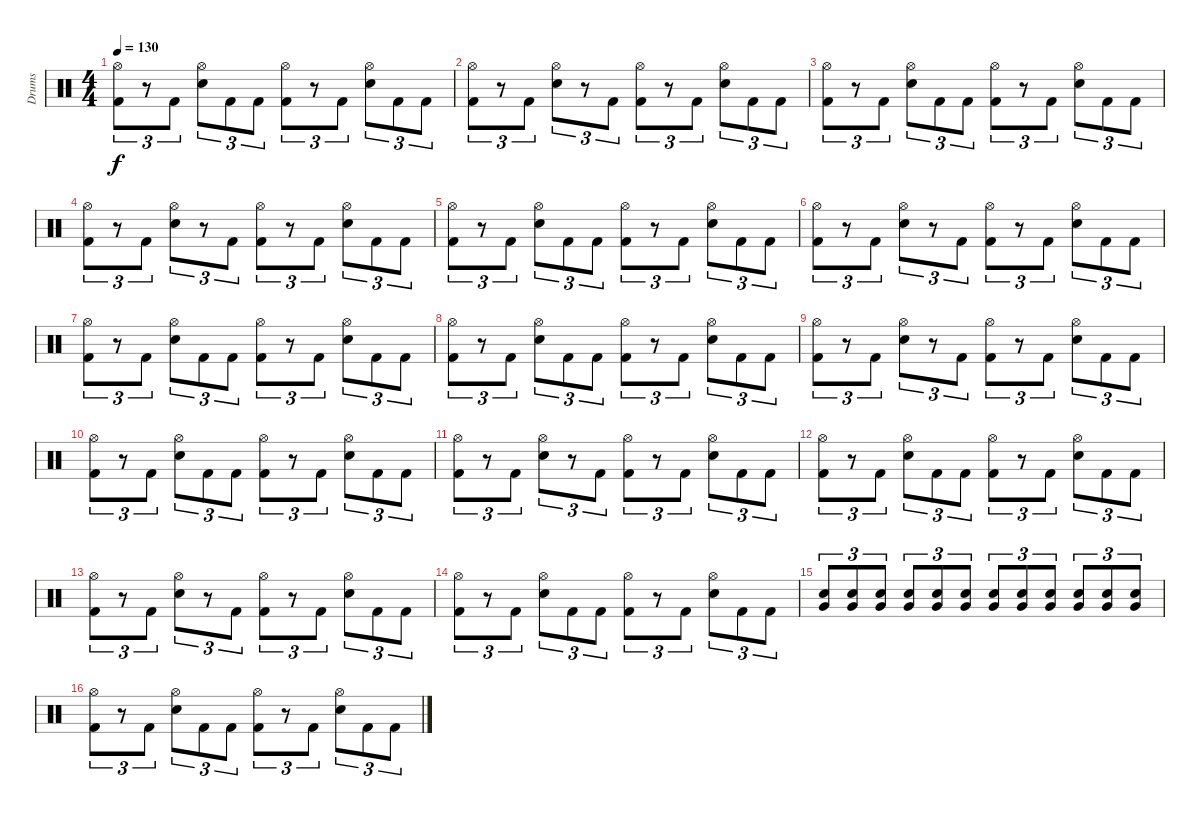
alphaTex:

\track ("Drums" "Drums") {instrument percussion}
\staff {score}
\articulation defaults
\ts (4 4)
\tempo 130
\clef neutral
\ks c
("Hi-Hat (open)" "Kick (hit) 2").8{tu (3 2) dy f} r.8{tu (3 2)} "Kick (hit) 2".8{tu (3 2)} ("Hi-Hat (open)" "Snare (hit) 2").8{tu (3 2)} "Kick (hit) 2".8{tu (3 2)} "Kick (hit) 2".8{tu (3 2)} ("Hi-Hat (open)" "Kick (hit) 2").8{tu (3 2)} r.8{tu (3 2)} "Kick (hit) 2".8{tu (3 2)} ("Hi-Hat (open)" "Snare (hit) 2").8{tu (3 2)} "Kick (hit) 2".8{tu (3 2)} "Kick (hit) 2".8{tu (3 2)} |
("Hi-Hat (open)" "Kick (hit) 2").8{tu (3 2)} r.8{tu (3 2)} "Kick (hit) 2".8{tu (3 2)} ("Hi-Hat (open)" "Snare (hit) 2").8{tu (3 2)} r.8{tu (3 2)} "Kick (hit) 2".8{tu (3 2)} ("Hi-Hat (open)" "Kick (hit) 2").8{tu (3 2)} r.8{tu (3 2)} "Kick (hit) 2".8{tu (3 2)} ("Hi-Hat (open)" "Snare (hit) 2").8{tu (3 2)} "Kick (hit) 2".8{tu (3 2)} "Kick (hit) 2".8{tu (3 2)} |
("Hi-Hat (open)" "Kick (hit) 2").8{tu (3 2)} r.8{tu (3 2)} "Kick (hit) 2".8{tu (3 2)} ("Hi-Hat (open)" "Snare (hit) 2").8{tu (3 2)} "Kick (hit) 2".8{tu (3 2)} "Kick (hit) 2".8{tu (3 2)} ("Hi-Hat (open)" "Kick (hit) 2").8{tu (3 2)} r.8{tu (3 2)} "Kick (hit) 2".8{tu (3 2)} ("Hi-Hat (open)" "Snare (hit) 2").8{tu (3 2)} "Kick (hit) 2".8{tu (3 2)} "Kick (hit) 2".8{tu (3 2)} |
("Hi-Hat (open)" "Kick (hit) 2").8{tu (3 2)} r.8{tu (3 2)} "Kick (hit) 2".8{tu (3 2)} ("Hi-Hat (open)" "Snare (hit) 2").8{tu (3 2)} r.8{tu (3 2)} "Kick (hit) 2".8{tu (3 2)} ("Hi-Hat (open)" "Kick (hit) 2").8{tu (3 2)} r.8{tu (3 2)} "Kick (hit) 2".8{tu (3 2)} ("Hi-Hat (open)" "Snare (hit) 2").8{tu (3 2)} "Kick (hit) 2".8{tu (3 2)} "Kick (hit) 2".8{tu (3 2)} |
("Hi-Hat (open)" "Kick (hit) 2").8{tu (3 2)} r.8{tu (3 2)} "Kick (hit) 2".8{tu (3 2)} ("Hi-Hat (open)" "Snare (hit) 2").8{tu (3 2)} "Kick (hit) 2".8{tu (3 2)} "Kick (hit) 2".8{tu (3 2)} ("Hi-Hat (open)" "Kick (hit) 2").8{tu (3 2)} r.8{tu (3 2)} "Kick (hit) 2".8{tu (3 2)} ("Hi-Hat (open)" "Snare (hit) 2").8{tu (3 2)} "Kick (hit) 2".8{tu (3 2)} "Kick (hit) 2".8{tu (3 2)} |
("Hi-Hat (open)" "Kick (hit) 2").8{tu (3 2)} r.8{tu (3 2)} "Kick (hit) 2".8{tu (3 2)} ("Hi-Hat (open)" "Snare (hit) 2").8{tu (3 2)} r.8{tu (3 2)} "Kick (hit) 2".8{tu (3 2)} ("Hi-Hat (open)" "Kick (hit) 2").8{tu (3 2)} r.8{tu (3 2)} "Kick (hit) 2".8{tu (3 2)} ("Hi-Hat (open)" "Snare (hit) 2").8{tu (3 2)} "Kick (hit) 2".8{tu (3 2)} "Kick (hit) 2".8{tu (3 2)} |
("Hi-Hat (open)" "Kick (hit) 2").8{tu (3 2)} r.8{tu (3 2)} "Kick (hit) 2".8{tu (3 2)} ("Hi-Hat (open)" "Snare (hit) 2").8{tu (3 2)} "Kick (hit) 2".8{tu (3 2)} "Kick (hit) 2".8{tu (3 2)} ("Hi-Hat (open)" "Kick (hit) 2").8{tu (3 2)} r.8{tu (3 2)} "Kick (hit) 2".8{tu (3 2)} ("Hi-Hat (open)" "Snare (hit) 2").8{tu (3 2)} "Kick (hit) 2".8{tu (3 2)} "Kick (hit) 2".8{tu (3 2)} |
("Hi-Hat (open)" "Kick (hit) 2").8{tu (3 2)} r.8{tu (3 2)} "Kick (hit) 2".8{tu (3 2)} ("Hi-Hat (open)" "Snare (hit) 2").8{tu (3 2)} "Kick (hit) 2".8{tu (3 2)} "Kick (hit) 2".8{tu (3 2)} ("Hi-Hat (open)" "Kick (hit) 2").8{tu (3 2)} r.8{tu (3 2)} "Kick (hit) 2".8{tu (3 2)} ("Hi-Hat (open)" "Snare (hit) 2").8{tu (3 2)} "Kick (hit) 2".8{tu (3 2)} "Kick (hit) 2".8{tu (3 2)} |
("Hi-Hat (open)" "Kick (hit) 2").8{tu (3 2)} r.8{tu (3 2)} "Kick (hit) 2".8{tu (3 2)} ("Hi-Hat (open)" "Snare (hit) 2").8{tu (3 2)} r.8{tu (3 2)} "Kick (hit) 2".8{tu (3 2)} ("Hi-Hat (open)" "Kick (hit) 2").8{tu (3 2)} r.8{tu (3 2)} "Kick (hit) 2".8{tu (3 2)} ("Hi-Hat (open)" "Snare (hit) 2").8{tu (3 2)} "Kick (hit) 2".8{tu (3 2)} "Kick (hit) 2".8{tu (3 2)} |
("Hi-Hat (open)" "Kick (hit) 2").8{tu (3 2)} r.8{tu (3 2)} "Kick (hit) 2".8{tu (3 2)} ("Hi-Hat (open)" "Snare (hit) 2").8{tu (3 2)} "Kick (hit) 2".8{tu (3 2)} "Kick (hit) 2".8{tu (3 2)} ("Hi-Hat (open)" "Kick (hit) 2").8{tu (3 2)} r.8{tu (3 2)} "Kick (hit) 2".8{tu (3 2)} ("Hi-Hat (open)" "Snare (hit) 2").8{tu (3 2)} "Kick (hit) 2".8{tu (3 2)} "Kick (hit) 2".8{tu (3 2)} |
("Hi-Hat (open)" "Kick (hit) 2").8{tu (3 2)} r.8{tu (3 2)} "Kick (hit) 2".8{tu (3 2)} ("Hi-Hat (open)" "Snare (hit) 2").8{tu (3 2)} r.8{tu (3 2)} "Kick (hit) 2".8{tu (3 2)} ("Hi-Hat (open)" "Kick (hit) 2").8{tu (3 2)} r.8{tu (3 2)} "Kick (hit) 2".8{tu (3 2)} ("Hi-Hat (open)" "Snare (hit) 2").8{tu (3 2)} "Kick (hit) 2".8{tu (3 2)} "Kick (hit) 2".8{tu (3 2)} |
("Hi-Hat (open)" "Kick (hit) 2").8{tu (3 2)} r.8{tu (3 2)} "Kick (hit) 2".8{tu (3 2)} ("Hi-Hat (open)" "Snare (hit) 2").8{tu (3 2)} "Kick (hit) 2".8{tu (3 2)} "Kick (hit) 2".8{tu (3 2)} ("Hi-Hat (open)" "Kick (hit) 2").8{tu (3 2)} r.8{tu (3 2)} "Kick (hit) 2".8{tu (3 2)} ("Hi-Hat (open)" "Snare (hit) 2").8{tu (3 2)} "Kick (hit) 2".8{tu (3 2)} "Kick (hit) 2".8{tu (3 2)} |
("Hi-Hat (open)" "Kick (hit) 2").8{tu (3 2)} r.8{tu (3 2)} "Kick (hit) 2".8{tu (3 2)} ("Hi-Hat (open)" "Snare (hit) 2").8{tu (3 2)} r.8{tu (3 2)} "Kick (hit) 2".8{tu (3 2)} ("Hi-Hat (open)" "Kick (hit) 2").8{tu (3 2)} r.8{tu (3 2)} "Kick (hit) 2".8{tu (3 2)} ("Hi-Hat (open)" "Snare (hit) 2").8{tu (3 2)} "Kick (hit) 2".8{tu (3 2)} "Kick (hit) 2".8{tu (3 2)} |
("Hi-Hat (open)" "Kick (hit) 2").8{tu (3 2)} r.8{tu (3 2)} "Kick (hit) 2".8{tu (3 2)} ("Hi-Hat (open)" "Snare (hit) 2").8{tu (3 2)} "Kick (hit) 2".8{tu (3 2)} "Kick (hit) 2".8{tu (3 2)} ("Hi-Hat (open)" "Kick (hit) 2").8{tu (3 2)} r.8{tu (3 2)} "Kick (hit) 2".8{tu (3 2)} ("Hi-Hat (open)" "Snare (hit) 2").8{tu (3 2)} "Kick (hit) 2".8{tu (3 2)} "Kick (hit) 2".8{tu (3 2)} |
("Very Low Tom (hit)" "Snare (hit) 2").8{tu (3 2)} ("Very Low Tom (hit)" "Snare (hit) 2").8{tu (3 2)} ("Very Low Tom (hit)" "Snare (hit) 2").8{tu (3 2)} ("Very Low Tom (hit)" "Snare (hit) 2").8{tu (3 2)} ("Very Low Tom (hit)" "Snare (hit) 2").8{tu (3 2)} ("Very Low Tom (hit)" "Snare (hit) 2").8{tu (3 2)} ("Very Low Tom (hit)" "Snare (hit) 2").8{tu (3 2)} ("Very Low Tom (hit)" "Snare (hit) 2").8{tu (3 2)} ("Very Low Tom (hit)" "Snare (hit) 2").8{tu (3 2)} ("Very Low Tom (hit)" "Snare (hit) 2").8{tu (3 2)} ("Very Low Tom (hit)" "Snare (hit) 2").8{tu (3 2)} ("Very Low Tom (hit)" "Snare (hit) 2").8{tu (3 2)} |
("Hi-Hat (open)" "Kick (hit) 2").8{tu (3 2)} r.8{tu (3 2)} "Kick (hit) 2".8{tu (3 2)} ("Hi-Hat (open)" "Snare (hit) 2").8{tu (3 2)} "Kick (hit) 2".8{tu (3 2)} "Kick (hit) 2".8{tu (3 2)} ("Hi-Hat (open)" "Kick (hit) 2").8{tu (3 2)} r.8{tu (3 2)} "Kick (hit) 2".8{tu (3 2)} ("Hi-Hat (open)" "Snare (hit) 2").8{tu (3 2)} "Kick (hit) 2".8{tu (3 2)} "Kick (hit) 2".8{tu (3 2)}
